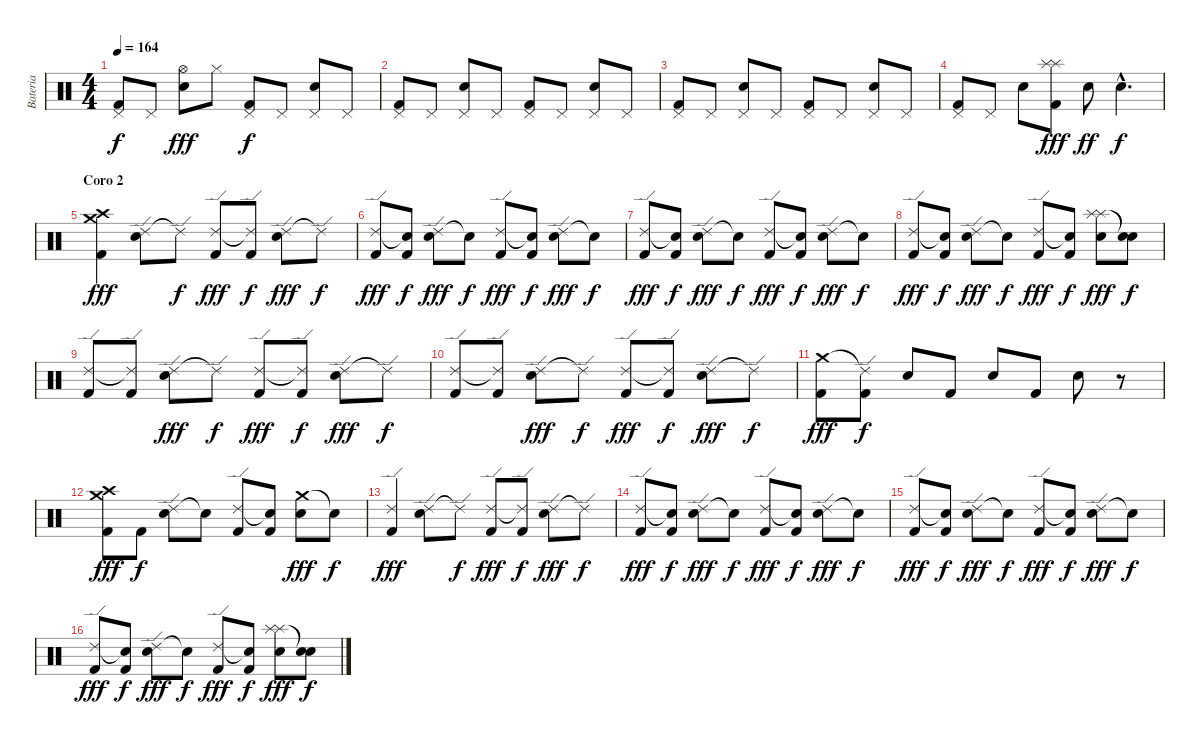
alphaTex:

\track ("Bateria" "Bateria") {instrument percussion}
\staff {score}
\articulation defaults
\ts (4 4)
\tempo 164
\clef neutral
\ks c
("Pedal Hi-Hat (hit)" "Kick (hit) 2").8{dy f} "Pedal Hi-Hat (hit)".8 ("Hi-Hat (open)" "Electric Snare (hit)").8{dy fff} "Hi-Hat (closed)".8 ("Pedal Hi-Hat (hit)" "Kick (hit) 2").8{dy f} "Pedal Hi-Hat (hit)".8 ("Pedal Hi-Hat (hit)" "Electric Snare (hit)").8 "Pedal Hi-Hat (hit)".8 |
("Pedal Hi-Hat (hit)" "Kick (hit) 2").8 "Pedal Hi-Hat (hit)".8 ("Pedal Hi-Hat (hit)" "Electric Snare (hit)").8 "Pedal Hi-Hat (hit)".8 ("Pedal Hi-Hat (hit)" "Kick (hit) 2").8 "Pedal Hi-Hat (hit)".8 ("Pedal Hi-Hat (hit)" "Electric Snare (hit)").8 "Pedal Hi-Hat (hit)".8 |
("Pedal Hi-Hat (hit)" "Kick (hit) 2").8 "Pedal Hi-Hat (hit)".8 ("Pedal Hi-Hat (hit)" "Electric Snare (hit)").8 "Pedal Hi-Hat (hit)".8 ("Pedal Hi-Hat (hit)" "Kick (hit) 2").8 "Pedal Hi-Hat (hit)".8 ("Pedal Hi-Hat (hit)" "Electric Snare (hit)").8 "Pedal Hi-Hat (hit)".8 |
("Pedal Hi-Hat (hit)" "Kick (hit) 2").8 "Pedal Hi-Hat (hit)".8 "Electric Snare (hit)".8 ("Splash (hit)" "Splash (hit)" "Kick (hit) 2").8{dy fff} "Electric Snare (hit)".8{dy ff} "Electric Snare (hit)"{hac}.4{d dy f} |
\section ("" "Coro 2")
("Crash medium (hit)" "Crash high (hit)" "Kick (hit) 2").4{dy fff} ("Ride (edge) 2" "Electric Snare (hit)").8 "Ride (edge) 2"{t}.8{dy f} ("Ride (edge) 2" "Kick (hit) 2").8{dy fff} ("Ride (edge) 2"{t} "Kick (hit) 2").8{dy f} ("Ride (edge) 2" "Electric Snare (hit)").8{dy fff} "Ride (edge) 2"{t}.8{dy f} |
("Ride (edge) 2" "Kick (hit) 2").8{dy fff} ("Snare (hit)"{t} "Kick (hit) 2").8{dy f} ("Ride (edge) 2" "Electric Snare (hit)").8{dy fff} "Snare (hit)"{t}.8{dy f} ("Ride (edge) 2" "Kick (hit) 2").8{dy fff} ("Snare (hit)"{t} "Kick (hit) 2").8{dy f} ("Ride (edge) 2" "Electric Snare (hit)").8{dy fff} "Snare (hit)"{t}.8{dy f} |
("Ride (edge) 2" "Kick (hit) 2").8{dy fff} ("Snare (hit)"{t} "Kick (hit) 2").8{dy f} ("Ride (edge) 2" "Electric Snare (hit)").8{dy fff} "Snare (hit)"{t}.8{dy f} ("Ride (edge) 2" "Kick (hit) 2").8{dy fff} ("Snare (hit)"{t} "Kick (hit) 2").8{dy f} ("Ride (edge) 2" "Electric Snare (hit)").8{dy fff} "Snare (hit)"{t}.8{dy f} |
("Ride (edge) 2" "Kick (hit) 2").8{dy fff} ("Snare (hit)"{t} "Kick (hit) 2").8{dy f} ("Ride (edge) 2" "Electric Snare (hit)").8{dy fff} "Snare (hit)"{t}.8{dy f} ("Ride (edge) 2" "Kick (hit) 2").8{dy fff} ("Snare (hit)"{t} "Kick (hit) 2").8{dy f} ("Splash (hit)" "Splash (hit)" "Electric Snare (hit)").8{dy fff} ("Snare (hit)"{t} "Snare (hit)"{t}).8{dy f} |
("Ride (edge) 2" "Kick (hit) 2").8 ("Ride (edge) 2"{t} "Kick (hit) 2").8 ("Ride (edge) 2" "Electric Snare (hit)").8{dy fff} "Ride (edge) 2"{t}.8{dy f} ("Ride (edge) 2" "Kick (hit) 2").8{dy fff} ("Ride (edge) 2"{t} "Kick (hit) 2").8{dy f} ("Ride (edge) 2" "Electric Snare (hit)").8{dy fff} "Ride (edge) 2"{t}.8{dy f} |
("Ride (edge) 2" "Kick (hit) 2").8 ("Ride (edge) 2"{t} "Kick (hit) 2").8 ("Ride (edge) 2" "Electric Snare (hit)").8{dy fff} "Ride (edge) 2"{t}.8{dy f} ("Ride (edge) 2" "Kick (hit) 2").8{dy fff} ("Ride (edge) 2"{t} "Kick (hit) 2").8{dy f} ("Ride (edge) 2" "Electric Snare (hit)").8{dy fff} "Ride (edge) 2"{t}.8{dy f} |
("Crash medium (hit)" "Kick (hit) 2").8{dy fff} ("Ride (edge) 2"{t} "Kick (hit) 2").8{dy f} "Electric Snare (hit)".8 "Kick (hit) 2".8 "Electric Snare (hit)".8 "Kick (hit) 2".8 "Electric Snare (hit)".8 r.8 |
("Crash medium (hit)" "Crash high (hit)" "Kick (hit) 2").8{dy fff} "Kick (hit) 2".8{dy f} ("Ride (edge) 2" "Electric Snare (hit)").8 "Snare (hit)"{t}.8 ("Ride (edge) 2" "Kick (hit) 2").8 ("Snare (hit)"{t} "Kick (hit) 2").8 ("Crash medium (hit)" "Electric Snare (hit)").8{dy fff} "Snare (hit)"{t}.8{dy f} |
("Ride (edge) 2" "Kick (hit) 2").4{dy fff} ("Ride (edge) 2" "Electric Snare (hit)").8 "Ride (edge) 2"{t}.8{dy f} ("Ride (edge) 2" "Kick (hit) 2").8{dy fff} ("Ride (edge) 2"{t} "Kick (hit) 2").8{dy f} ("Ride (edge) 2" "Electric Snare (hit)").8{dy fff} "Ride (edge) 2"{t}.8{dy f} |
("Ride (edge) 2" "Kick (hit) 2").8{dy fff} ("Snare (hit)"{t} "Kick (hit) 2").8{dy f} ("Ride (edge) 2" "Electric Snare (hit)").8{dy fff} "Snare (hit)"{t}.8{dy f} ("Ride (edge) 2" "Kick (hit) 2").8{dy fff} ("Snare (hit)"{t} "Kick (hit) 2").8{dy f} ("Ride (edge) 2" "Electric Snare (hit)").8{dy fff} "Snare (hit)"{t}.8{dy f} |
("Ride (edge) 2" "Kick (hit) 2").8{dy fff} ("Snare (hit)"{t} "Kick (hit) 2").8{dy f} ("Ride (edge) 2" "Electric Snare (hit)").8{dy fff} "Snare (hit)"{t}.8{dy f} ("Ride (edge) 2" "Kick (hit) 2").8{dy fff} ("Snare (hit)"{t} "Kick (hit) 2").8{dy f} ("Ride (edge) 2" "Electric Snare (hit)").8{dy fff} "Snare (hit)"{t}.8{dy f} |
("Ride (edge) 2" "Kick (hit) 2").8{dy fff} ("Snare (hit)"{t} "Kick (hit) 2").8{dy f} ("Ride (edge) 2" "Electric Snare (hit)").8{dy fff} "Snare (hit)"{t}.8{dy f} ("Ride (edge) 2" "Kick (hit) 2").8{dy fff} ("Snare (hit)"{t} "Kick (hit) 2").8{dy f} ("Splash (hit)" "Splash (hit)" "Electric Snare (hit)").8{dy fff} ("Snare (hit)"{t} "Snare (hit)"{t}).8{dy f}
